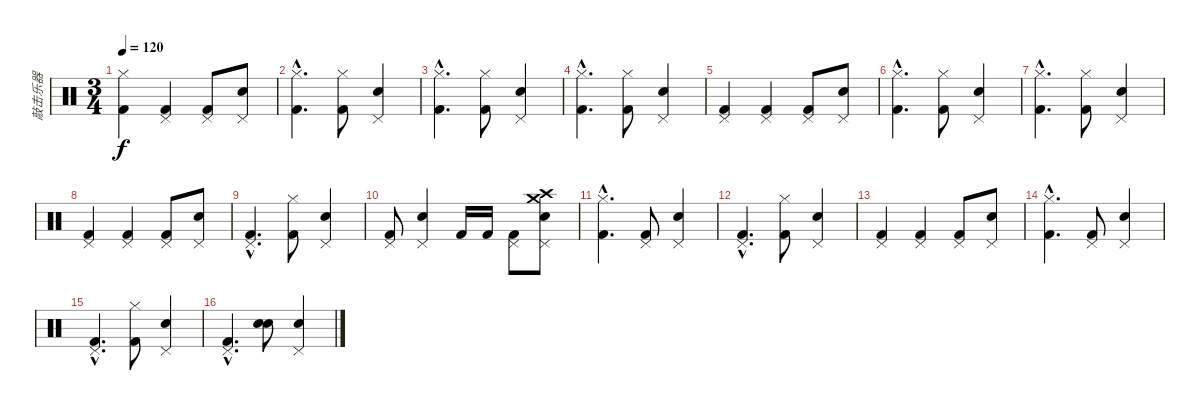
\track ("敲击乐器" "敲击乐器") {instrument percussion}
\staff {score}
\articulation defaults
\ts (3 4)
\tempo 120
\clef neutral
\ks c
("Kick (hit) 2" "Hi-Hat (closed)").4{dy f} ("Kick (hit) 2" "Pedal Hi-Hat (hit)").4 ("Kick (hit) 2" "Pedal Hi-Hat (hit)").8 ("Snare (hit) 2" "Pedal Hi-Hat (hit)").8 |
("Kick (hit) 2"{hac} "Hi-Hat (closed)"{hac}).4{d} ("Kick (hit) 2" "Hi-Hat (closed)").8 ("Snare (hit) 2" "Pedal Hi-Hat (hit)").4 |
("Kick (hit) 2"{hac} "Hi-Hat (closed)"{hac}).4{d} ("Kick (hit) 2" "Hi-Hat (closed)").8 ("Snare (hit) 2" "Pedal Hi-Hat (hit)").4 |
("Kick (hit) 2"{hac} "Hi-Hat (closed)"{hac}).4{d} ("Kick (hit) 2" "Hi-Hat (closed)").8 ("Snare (hit) 2" "Pedal Hi-Hat (hit)").4 |
("Kick (hit) 2" "Pedal Hi-Hat (hit)").4 ("Kick (hit) 2" "Pedal Hi-Hat (hit)").4 ("Kick (hit) 2" "Pedal Hi-Hat (hit)").8 ("Snare (hit) 2" "Pedal Hi-Hat (hit)").8 |
("Kick (hit) 2"{hac} "Hi-Hat (closed)"{hac}).4{d} ("Kick (hit) 2" "Hi-Hat (closed)").8 ("Snare (hit) 2" "Pedal Hi-Hat (hit)").4 |
("Kick (hit) 2"{hac} "Hi-Hat (closed)"{hac}).4{d} ("Kick (hit) 2" "Hi-Hat (closed)").8 ("Snare (hit) 2" "Pedal Hi-Hat (hit)").4 |
("Kick (hit) 2" "Pedal Hi-Hat (hit)").4 ("Kick (hit) 2" "Pedal Hi-Hat (hit)").4 ("Kick (hit) 2" "Pedal Hi-Hat (hit)").8 ("Snare (hit) 2" "Pedal Hi-Hat (hit)").8 |
("Kick (hit) 2"{hac} "Pedal Hi-Hat (hit)"{hac}).4{d} ("Kick (hit) 2" "Hi-Hat (closed)").8 ("Snare (hit) 2" "Pedal Hi-Hat (hit)").4 |
("Kick (hit) 2" "Pedal Hi-Hat (hit)").8 ("Pedal Hi-Hat (hit)" "Snare (hit) 2").4 "Kick (hit) 2".16 "Kick (hit) 2".16 ("Pedal Hi-Hat (hit)" "Kick (hit) 2").8 ("Snare (hit) 2" "Crash high (hit)" "Pedal Hi-Hat (hit)" "Crash medium (hit)").8 |
("Kick (hit) 2"{hac} "Hi-Hat (closed)"{hac}).4{d} ("Kick (hit) 2" "Pedal Hi-Hat (hit)").8 ("Pedal Hi-Hat (hit)" "Snare (hit) 2").4 |
("Kick (hit) 2"{hac} "Pedal Hi-Hat (hit)"{hac}).4{d} ("Kick (hit) 2" "Hi-Hat (closed)").8 ("Pedal Hi-Hat (hit)" "Snare (hit) 2").4 |
("Kick (hit) 2" "Pedal Hi-Hat (hit)").4 ("Kick (hit) 2" "Pedal Hi-Hat (hit)").4 ("Kick (hit) 2" "Pedal Hi-Hat (hit)").8 ("Snare (hit) 2" "Pedal Hi-Hat (hit)").8 |
("Kick (hit) 2"{hac} "Hi-Hat (closed)"{hac}).4{d} ("Kick (hit) 2" "Pedal Hi-Hat (hit)").8 ("Pedal Hi-Hat (hit)" "Snare (hit) 2").4 |
("Kick (hit) 2"{hac} "Pedal Hi-Hat (hit)"{hac}).4{d} ("Kick (hit) 2" "Hi-Hat (closed)").8 ("Pedal Hi-Hat (hit)" "Snare (hit) 2").4 |
("Kick (hit) 2"{hac} "Pedal Hi-Hat (hit)"{hac}).4{d} ("Snare (hit) 2" "Electric Snare (hit)").8 ("Snare (hit) 2" "Pedal Hi-Hat (hit)").4
